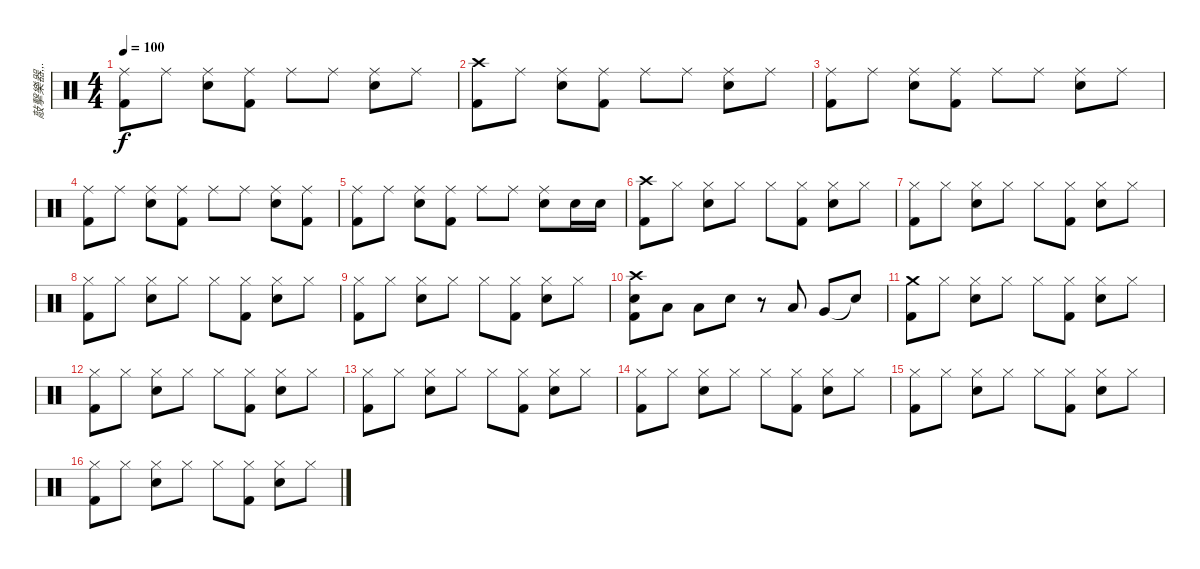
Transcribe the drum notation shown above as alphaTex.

\track ("敲擊樂器,,." "敲擊樂器,,.") {instrument percussion}
\staff {score}
\articulation defaults
\ts (4 4)
\tempo 100
\clef neutral
\ks c
("Ride (middle)" "Kick (hit) 2").8{dy f} "Ride (middle)".8 ("Ride (middle)" "Snare (hit) 2").8 ("Ride (middle)" "Kick (hit) 2").8 "Ride (middle)".8 "Ride (middle)".8 ("Ride (middle)" "Snare (hit) 2").8 "Ride (middle)".8 |
("Crash high (hit)" "Kick (hit) 2").8 "Ride (middle)".8 ("Ride (middle)" "Snare (hit) 2").8 ("Ride (middle)" "Kick (hit) 2").8 "Ride (middle)".8 "Ride (middle)".8 ("Ride (middle)" "Snare (hit) 2").8 "Ride (middle)".8 |
("Ride (middle)" "Kick (hit) 2").8 "Ride (middle)".8 ("Ride (middle)" "Snare (hit) 2").8 ("Ride (middle)" "Kick (hit) 2").8 "Ride (middle)".8 "Ride (middle)".8 ("Ride (middle)" "Snare (hit) 2").8 "Ride (middle)".8 |
("Ride (middle)" "Kick (hit) 2").8 "Ride (middle)".8 ("Ride (middle)" "Snare (hit) 2").8 ("Ride (middle)" "Kick (hit) 2").8 "Ride (middle)".8 "Ride (middle)".8 ("Ride (middle)" "Snare (hit) 2").8 ("Ride (middle)" "Kick (hit) 2").8 |
("Ride (middle)" "Kick (hit) 2").8 "Ride (middle)".8 ("Ride (middle)" "Snare (hit) 2").8 ("Ride (middle)" "Kick (hit) 2").8 "Ride (middle)".8 "Ride (middle)".8 ("Ride (middle)" "Snare (hit) 2").8 "Snare (hit) 2".16 "Snare (hit) 2".16 |
("Crash high (hit)" "Kick (hit) 2").8 "Hi-Hat (closed)".8 ("Hi-Hat (closed)" "Snare (hit) 2").8 "Hi-Hat (closed)".8 "Hi-Hat (closed)".8 ("Hi-Hat (closed)" "Kick (hit) 2").8 ("Hi-Hat (closed)" "Snare (hit) 2").8 "Hi-Hat (closed)".8 |
("Hi-Hat (closed)" "Kick (hit) 2").8 "Hi-Hat (closed)".8 ("Hi-Hat (closed)" "Snare (hit) 2").8 "Hi-Hat (closed)".8 "Hi-Hat (closed)".8 ("Hi-Hat (closed)" "Kick (hit) 2").8 ("Hi-Hat (closed)" "Snare (hit) 2").8 "Hi-Hat (closed)".8 |
("Hi-Hat (closed)" "Kick (hit) 2").8 "Hi-Hat (closed)".8 ("Hi-Hat (closed)" "Snare (hit) 2").8 "Hi-Hat (closed)".8 "Hi-Hat (closed)".8 ("Hi-Hat (closed)" "Kick (hit) 2").8 ("Hi-Hat (closed)" "Snare (hit) 2").8 "Hi-Hat (closed)".8 |
("Hi-Hat (closed)" "Kick (hit) 2").8 "Hi-Hat (closed)".8 ("Hi-Hat (closed)" "Snare (hit) 2").8 "Hi-Hat (closed)".8 "Hi-Hat (closed)".8 ("Hi-Hat (closed)" "Kick (hit) 2").8 ("Hi-Hat (closed)" "Snare (hit) 2").8 "Hi-Hat (closed)".8 |
("Crash high (hit)" "Snare (hit) 2" "Kick (hit) 2").8 "Low Tom (hit)".8 "Low Tom (hit)".8 "Snare (hit) 2".8 r.8 "Low Tom (hit)".8 "Very Low Tom (hit)".8 "Snare (hit)"{t}.8 |
("Crash medium (hit)" "Kick (hit) 2").8 "Hi-Hat (closed)".8 ("Hi-Hat (closed)" "Snare (hit) 2").8 "Hi-Hat (closed)".8 "Hi-Hat (closed)".8 ("Hi-Hat (closed)" "Kick (hit) 2").8 ("Hi-Hat (closed)" "Snare (hit) 2").8 "Hi-Hat (closed)".8 |
("Hi-Hat (closed)" "Kick (hit) 2").8 "Hi-Hat (closed)".8 ("Hi-Hat (closed)" "Snare (hit) 2").8 "Hi-Hat (closed)".8 "Hi-Hat (closed)".8 ("Hi-Hat (closed)" "Kick (hit) 2").8 ("Hi-Hat (closed)" "Snare (hit) 2").8 "Hi-Hat (closed)".8 |
("Hi-Hat (closed)" "Kick (hit) 2").8 "Hi-Hat (closed)".8 ("Hi-Hat (closed)" "Snare (hit) 2").8 "Hi-Hat (closed)".8 "Hi-Hat (closed)".8 ("Hi-Hat (closed)" "Kick (hit) 2").8 ("Hi-Hat (closed)" "Snare (hit) 2").8 "Hi-Hat (closed)".8 |
("Hi-Hat (closed)" "Kick (hit) 2").8 "Hi-Hat (closed)".8 ("Hi-Hat (closed)" "Snare (hit) 2").8 "Hi-Hat (closed)".8 "Hi-Hat (closed)".8 ("Hi-Hat (closed)" "Kick (hit) 2").8 ("Hi-Hat (closed)" "Snare (hit) 2").8 "Hi-Hat (closed)".8 |
("Hi-Hat (closed)" "Kick (hit) 2").8 "Hi-Hat (closed)".8 ("Hi-Hat (closed)" "Snare (hit) 2").8 "Hi-Hat (closed)".8 "Hi-Hat (closed)".8 ("Hi-Hat (closed)" "Kick (hit) 2").8 ("Hi-Hat (closed)" "Snare (hit) 2").8 "Hi-Hat (closed)".8 |
("Hi-Hat (closed)" "Kick (hit) 2").8 "Hi-Hat (closed)".8 ("Hi-Hat (closed)" "Snare (hit) 2").8 "Hi-Hat (closed)".8 "Hi-Hat (closed)".8 ("Hi-Hat (closed)" "Kick (hit) 2").8 ("Hi-Hat (closed)" "Snare (hit) 2").8 "Hi-Hat (closed)".8
